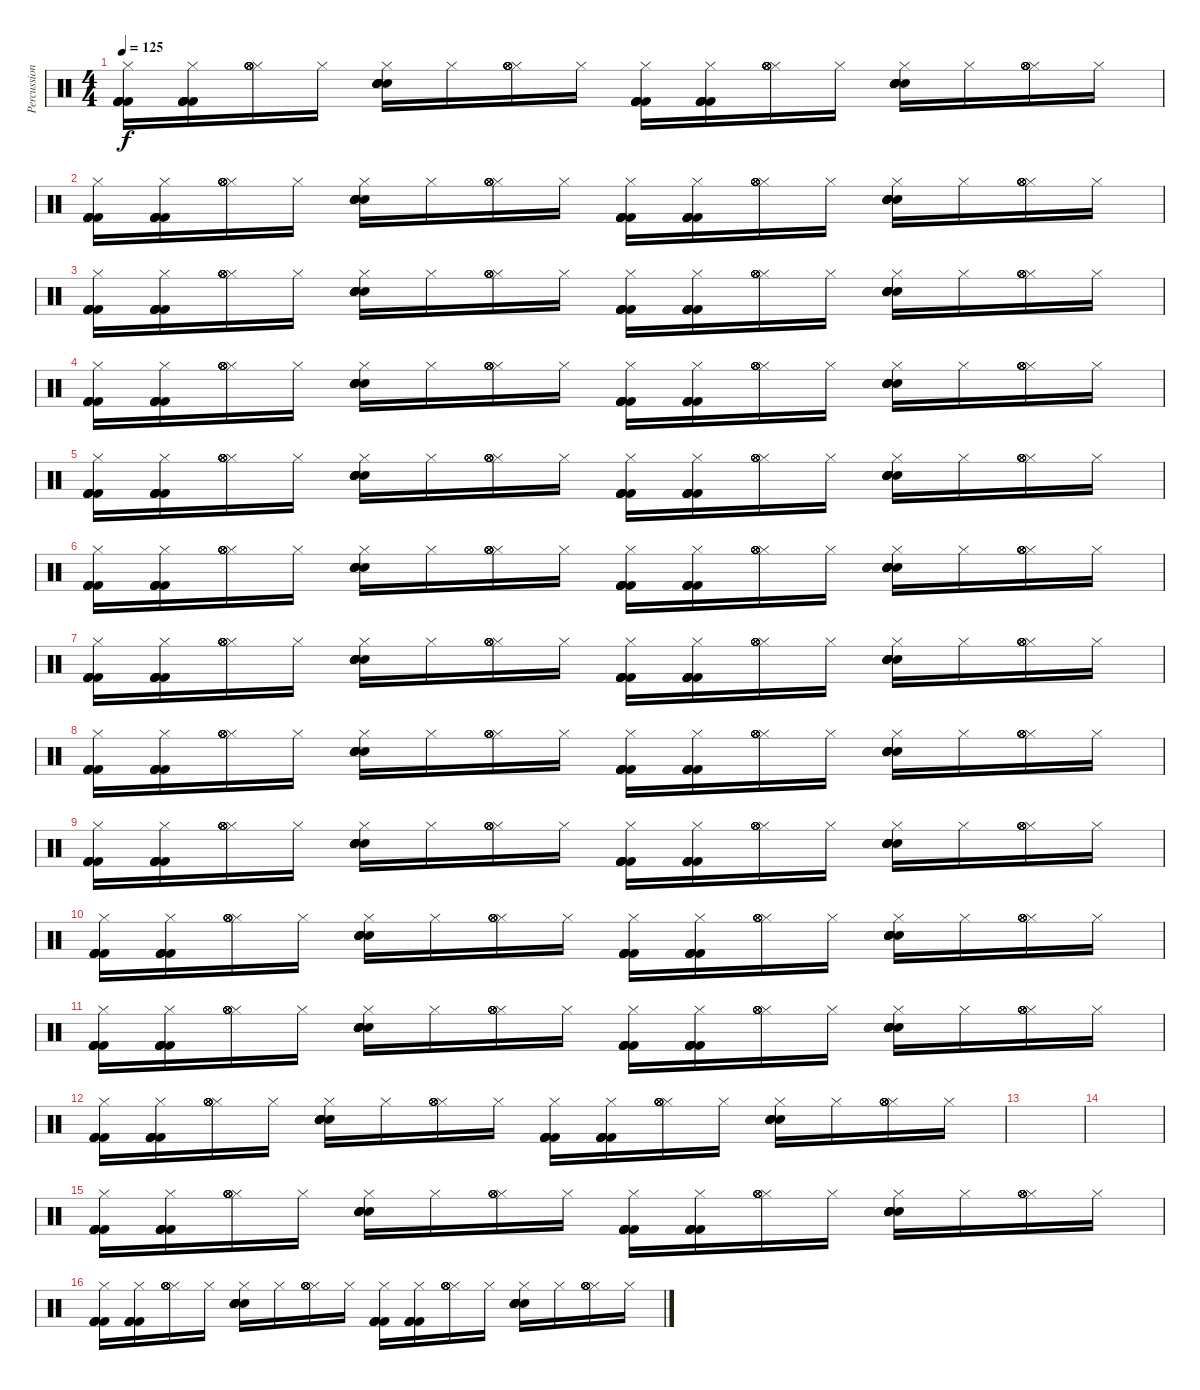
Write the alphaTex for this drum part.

\track ("Percussion" "Percussion") {instrument percussion}
\staff {score}
\articulation defaults
\ts (4 4)
\tempo 125
\clef neutral
\ks c
("Hi-Hat (closed)" "Kick (hit) 2" "Kick (hit) 2" "Kick (hit) 2" "Kick (hit) 2" "Kick (hit) 2").16{dy f} ("Hi-Hat (closed)" "Kick (hit) 2" "Kick (hit) 2" "Kick (hit) 2" "Kick (hit) 2" "Kick (hit) 2").16 ("Hi-Hat (closed)" "Hi-Hat (open)" "Hi-Hat (open)" "Hi-Hat (open)" "Hi-Hat (open)" "Hi-Hat (open)").16 "Hi-Hat (closed)".16 ("Hi-Hat (closed)" "Electric Snare (hit)" "Electric Snare (hit)" "Electric Snare (hit)" "Electric Snare (hit)" "Electric Snare (hit)").16 "Hi-Hat (closed)".16 ("Hi-Hat (closed)" "Hi-Hat (open)" "Hi-Hat (open)" "Hi-Hat (open)" "Hi-Hat (open)" "Hi-Hat (open)").16 "Hi-Hat (closed)".16 ("Hi-Hat (closed)" "Kick (hit) 2" "Kick (hit) 2" "Kick (hit) 2" "Kick (hit) 2" "Kick (hit) 2").16 ("Hi-Hat (closed)" "Kick (hit) 2" "Kick (hit) 2" "Kick (hit) 2" "Kick (hit) 2" "Kick (hit) 2").16 ("Hi-Hat (closed)" "Hi-Hat (open)" "Hi-Hat (open)" "Hi-Hat (open)" "Hi-Hat (open)" "Hi-Hat (open)").16 "Hi-Hat (closed)".16 ("Hi-Hat (closed)" "Electric Snare (hit)" "Electric Snare (hit)" "Electric Snare (hit)" "Electric Snare (hit)" "Electric Snare (hit)").16 "Hi-Hat (closed)".16 ("Hi-Hat (closed)" "Hi-Hat (open)" "Hi-Hat (open)" "Hi-Hat (open)" "Hi-Hat (open)" "Hi-Hat (open)").16 "Hi-Hat (closed)".16 |
("Hi-Hat (closed)" "Kick (hit) 2" "Kick (hit) 2" "Kick (hit) 2" "Kick (hit) 2" "Kick (hit) 2").16 ("Hi-Hat (closed)" "Kick (hit) 2" "Kick (hit) 2" "Kick (hit) 2" "Kick (hit) 2" "Kick (hit) 2").16 ("Hi-Hat (closed)" "Hi-Hat (open)" "Hi-Hat (open)" "Hi-Hat (open)" "Hi-Hat (open)" "Hi-Hat (open)").16 "Hi-Hat (closed)".16 ("Hi-Hat (closed)" "Electric Snare (hit)" "Electric Snare (hit)" "Electric Snare (hit)" "Electric Snare (hit)" "Electric Snare (hit)").16 "Hi-Hat (closed)".16 ("Hi-Hat (closed)" "Hi-Hat (open)" "Hi-Hat (open)" "Hi-Hat (open)" "Hi-Hat (open)" "Hi-Hat (open)").16 "Hi-Hat (closed)".16 ("Hi-Hat (closed)" "Kick (hit) 2" "Kick (hit) 2" "Kick (hit) 2" "Kick (hit) 2" "Kick (hit) 2").16 ("Hi-Hat (closed)" "Kick (hit) 2" "Kick (hit) 2" "Kick (hit) 2" "Kick (hit) 2" "Kick (hit) 2").16 ("Hi-Hat (closed)" "Hi-Hat (open)" "Hi-Hat (open)" "Hi-Hat (open)" "Hi-Hat (open)" "Hi-Hat (open)").16 "Hi-Hat (closed)".16 ("Hi-Hat (closed)" "Electric Snare (hit)" "Electric Snare (hit)" "Electric Snare (hit)" "Electric Snare (hit)" "Electric Snare (hit)").16 "Hi-Hat (closed)".16 ("Hi-Hat (closed)" "Hi-Hat (open)" "Hi-Hat (open)" "Hi-Hat (open)" "Hi-Hat (open)" "Hi-Hat (open)").16 "Hi-Hat (closed)".16 |
("Hi-Hat (closed)" "Kick (hit) 2" "Kick (hit) 2" "Kick (hit) 2" "Kick (hit) 2" "Kick (hit) 2").16 ("Hi-Hat (closed)" "Kick (hit) 2" "Kick (hit) 2" "Kick (hit) 2" "Kick (hit) 2" "Kick (hit) 2").16 ("Hi-Hat (closed)" "Hi-Hat (open)" "Hi-Hat (open)" "Hi-Hat (open)" "Hi-Hat (open)" "Hi-Hat (open)").16 "Hi-Hat (closed)".16 ("Hi-Hat (closed)" "Electric Snare (hit)" "Electric Snare (hit)" "Electric Snare (hit)" "Electric Snare (hit)" "Electric Snare (hit)").16 "Hi-Hat (closed)".16 ("Hi-Hat (closed)" "Hi-Hat (open)" "Hi-Hat (open)" "Hi-Hat (open)" "Hi-Hat (open)" "Hi-Hat (open)").16 "Hi-Hat (closed)".16 ("Hi-Hat (closed)" "Kick (hit) 2" "Kick (hit) 2" "Kick (hit) 2" "Kick (hit) 2" "Kick (hit) 2").16 ("Hi-Hat (closed)" "Kick (hit) 2" "Kick (hit) 2" "Kick (hit) 2" "Kick (hit) 2" "Kick (hit) 2").16 ("Hi-Hat (closed)" "Hi-Hat (open)" "Hi-Hat (open)" "Hi-Hat (open)" "Hi-Hat (open)" "Hi-Hat (open)").16 "Hi-Hat (closed)".16 ("Hi-Hat (closed)" "Electric Snare (hit)" "Electric Snare (hit)" "Electric Snare (hit)" "Electric Snare (hit)" "Electric Snare (hit)").16 "Hi-Hat (closed)".16 ("Hi-Hat (closed)" "Hi-Hat (open)" "Hi-Hat (open)" "Hi-Hat (open)" "Hi-Hat (open)" "Hi-Hat (open)").16 "Hi-Hat (closed)".16 |
("Hi-Hat (closed)" "Kick (hit) 2" "Kick (hit) 2" "Kick (hit) 2" "Kick (hit) 2" "Kick (hit) 2").16 ("Hi-Hat (closed)" "Kick (hit) 2" "Kick (hit) 2" "Kick (hit) 2" "Kick (hit) 2" "Kick (hit) 2").16 ("Hi-Hat (closed)" "Hi-Hat (open)" "Hi-Hat (open)" "Hi-Hat (open)" "Hi-Hat (open)" "Hi-Hat (open)").16 "Hi-Hat (closed)".16 ("Hi-Hat (closed)" "Electric Snare (hit)" "Electric Snare (hit)" "Electric Snare (hit)" "Electric Snare (hit)" "Electric Snare (hit)").16 "Hi-Hat (closed)".16 ("Hi-Hat (closed)" "Hi-Hat (open)" "Hi-Hat (open)" "Hi-Hat (open)" "Hi-Hat (open)" "Hi-Hat (open)").16 "Hi-Hat (closed)".16 ("Hi-Hat (closed)" "Kick (hit) 2" "Kick (hit) 2" "Kick (hit) 2" "Kick (hit) 2" "Kick (hit) 2").16 ("Hi-Hat (closed)" "Kick (hit) 2" "Kick (hit) 2" "Kick (hit) 2" "Kick (hit) 2" "Kick (hit) 2").16 ("Hi-Hat (closed)" "Hi-Hat (open)" "Hi-Hat (open)" "Hi-Hat (open)" "Hi-Hat (open)" "Hi-Hat (open)").16 "Hi-Hat (closed)".16 ("Hi-Hat (closed)" "Electric Snare (hit)" "Electric Snare (hit)" "Electric Snare (hit)" "Electric Snare (hit)" "Electric Snare (hit)").16 "Hi-Hat (closed)".16 ("Hi-Hat (closed)" "Hi-Hat (open)" "Hi-Hat (open)" "Hi-Hat (open)" "Hi-Hat (open)" "Hi-Hat (open)").16 "Hi-Hat (closed)".16 |
("Hi-Hat (closed)" "Kick (hit) 2" "Kick (hit) 2" "Kick (hit) 2" "Kick (hit) 2" "Kick (hit) 2").16 ("Hi-Hat (closed)" "Kick (hit) 2" "Kick (hit) 2" "Kick (hit) 2" "Kick (hit) 2" "Kick (hit) 2").16 ("Hi-Hat (closed)" "Hi-Hat (open)" "Hi-Hat (open)" "Hi-Hat (open)" "Hi-Hat (open)" "Hi-Hat (open)").16 "Hi-Hat (closed)".16 ("Hi-Hat (closed)" "Electric Snare (hit)" "Electric Snare (hit)" "Electric Snare (hit)" "Electric Snare (hit)" "Electric Snare (hit)").16 "Hi-Hat (closed)".16 ("Hi-Hat (closed)" "Hi-Hat (open)" "Hi-Hat (open)" "Hi-Hat (open)" "Hi-Hat (open)" "Hi-Hat (open)").16 "Hi-Hat (closed)".16 ("Hi-Hat (closed)" "Kick (hit) 2" "Kick (hit) 2" "Kick (hit) 2" "Kick (hit) 2" "Kick (hit) 2").16 ("Hi-Hat (closed)" "Kick (hit) 2" "Kick (hit) 2" "Kick (hit) 2" "Kick (hit) 2" "Kick (hit) 2").16 ("Hi-Hat (closed)" "Hi-Hat (open)" "Hi-Hat (open)" "Hi-Hat (open)" "Hi-Hat (open)" "Hi-Hat (open)").16 "Hi-Hat (closed)".16 ("Hi-Hat (closed)" "Electric Snare (hit)" "Electric Snare (hit)" "Electric Snare (hit)" "Electric Snare (hit)" "Electric Snare (hit)").16 "Hi-Hat (closed)".16 ("Hi-Hat (closed)" "Hi-Hat (open)" "Hi-Hat (open)" "Hi-Hat (open)" "Hi-Hat (open)" "Hi-Hat (open)").16 "Hi-Hat (closed)".16 |
("Hi-Hat (closed)" "Kick (hit) 2" "Kick (hit) 2" "Kick (hit) 2" "Kick (hit) 2" "Kick (hit) 2").16 ("Hi-Hat (closed)" "Kick (hit) 2" "Kick (hit) 2" "Kick (hit) 2" "Kick (hit) 2" "Kick (hit) 2").16 ("Hi-Hat (closed)" "Hi-Hat (open)" "Hi-Hat (open)" "Hi-Hat (open)" "Hi-Hat (open)" "Hi-Hat (open)").16 "Hi-Hat (closed)".16 ("Hi-Hat (closed)" "Electric Snare (hit)" "Electric Snare (hit)" "Electric Snare (hit)" "Electric Snare (hit)" "Electric Snare (hit)").16 "Hi-Hat (closed)".16 ("Hi-Hat (closed)" "Hi-Hat (open)" "Hi-Hat (open)" "Hi-Hat (open)" "Hi-Hat (open)" "Hi-Hat (open)").16 "Hi-Hat (closed)".16 ("Hi-Hat (closed)" "Kick (hit) 2" "Kick (hit) 2" "Kick (hit) 2" "Kick (hit) 2" "Kick (hit) 2").16 ("Hi-Hat (closed)" "Kick (hit) 2" "Kick (hit) 2" "Kick (hit) 2" "Kick (hit) 2" "Kick (hit) 2").16 ("Hi-Hat (closed)" "Hi-Hat (open)" "Hi-Hat (open)" "Hi-Hat (open)" "Hi-Hat (open)" "Hi-Hat (open)").16 "Hi-Hat (closed)".16 ("Hi-Hat (closed)" "Electric Snare (hit)" "Electric Snare (hit)" "Electric Snare (hit)" "Electric Snare (hit)" "Electric Snare (hit)").16 "Hi-Hat (closed)".16 ("Hi-Hat (closed)" "Hi-Hat (open)" "Hi-Hat (open)" "Hi-Hat (open)" "Hi-Hat (open)" "Hi-Hat (open)").16 "Hi-Hat (closed)".16 |
("Hi-Hat (closed)" "Kick (hit) 2" "Kick (hit) 2" "Kick (hit) 2" "Kick (hit) 2" "Kick (hit) 2").16 ("Hi-Hat (closed)" "Kick (hit) 2" "Kick (hit) 2" "Kick (hit) 2" "Kick (hit) 2" "Kick (hit) 2").16 ("Hi-Hat (closed)" "Hi-Hat (open)" "Hi-Hat (open)" "Hi-Hat (open)" "Hi-Hat (open)" "Hi-Hat (open)").16 "Hi-Hat (closed)".16 ("Hi-Hat (closed)" "Electric Snare (hit)" "Electric Snare (hit)" "Electric Snare (hit)" "Electric Snare (hit)" "Electric Snare (hit)").16 "Hi-Hat (closed)".16 ("Hi-Hat (closed)" "Hi-Hat (open)" "Hi-Hat (open)" "Hi-Hat (open)" "Hi-Hat (open)" "Hi-Hat (open)").16 "Hi-Hat (closed)".16 ("Hi-Hat (closed)" "Kick (hit) 2" "Kick (hit) 2" "Kick (hit) 2" "Kick (hit) 2" "Kick (hit) 2").16 ("Hi-Hat (closed)" "Kick (hit) 2" "Kick (hit) 2" "Kick (hit) 2" "Kick (hit) 2" "Kick (hit) 2").16 ("Hi-Hat (closed)" "Hi-Hat (open)" "Hi-Hat (open)" "Hi-Hat (open)" "Hi-Hat (open)" "Hi-Hat (open)").16 "Hi-Hat (closed)".16 ("Hi-Hat (closed)" "Electric Snare (hit)" "Electric Snare (hit)" "Electric Snare (hit)" "Electric Snare (hit)" "Electric Snare (hit)").16 "Hi-Hat (closed)".16 ("Hi-Hat (closed)" "Hi-Hat (open)" "Hi-Hat (open)" "Hi-Hat (open)" "Hi-Hat (open)" "Hi-Hat (open)").16 "Hi-Hat (closed)".16 |
("Hi-Hat (closed)" "Kick (hit) 2" "Kick (hit) 2" "Kick (hit) 2" "Kick (hit) 2" "Kick (hit) 2").16 ("Hi-Hat (closed)" "Kick (hit) 2" "Kick (hit) 2" "Kick (hit) 2" "Kick (hit) 2" "Kick (hit) 2").16 ("Hi-Hat (closed)" "Hi-Hat (open)" "Hi-Hat (open)" "Hi-Hat (open)" "Hi-Hat (open)" "Hi-Hat (open)").16 "Hi-Hat (closed)".16 ("Hi-Hat (closed)" "Electric Snare (hit)" "Electric Snare (hit)" "Electric Snare (hit)" "Electric Snare (hit)" "Electric Snare (hit)").16 "Hi-Hat (closed)".16 ("Hi-Hat (closed)" "Hi-Hat (open)" "Hi-Hat (open)" "Hi-Hat (open)" "Hi-Hat (open)" "Hi-Hat (open)").16 "Hi-Hat (closed)".16 ("Hi-Hat (closed)" "Kick (hit) 2" "Kick (hit) 2" "Kick (hit) 2" "Kick (hit) 2" "Kick (hit) 2").16 ("Hi-Hat (closed)" "Kick (hit) 2" "Kick (hit) 2" "Kick (hit) 2" "Kick (hit) 2" "Kick (hit) 2").16 ("Hi-Hat (closed)" "Hi-Hat (open)" "Hi-Hat (open)" "Hi-Hat (open)" "Hi-Hat (open)" "Hi-Hat (open)").16 "Hi-Hat (closed)".16 ("Hi-Hat (closed)" "Electric Snare (hit)" "Electric Snare (hit)" "Electric Snare (hit)" "Electric Snare (hit)" "Electric Snare (hit)").16 "Hi-Hat (closed)".16 ("Hi-Hat (closed)" "Hi-Hat (open)" "Hi-Hat (open)" "Hi-Hat (open)" "Hi-Hat (open)" "Hi-Hat (open)").16 "Hi-Hat (closed)".16 |
("Hi-Hat (closed)" "Kick (hit) 2" "Kick (hit) 2" "Kick (hit) 2" "Kick (hit) 2" "Kick (hit) 2").16 ("Hi-Hat (closed)" "Kick (hit) 2" "Kick (hit) 2" "Kick (hit) 2" "Kick (hit) 2" "Kick (hit) 2").16 ("Hi-Hat (closed)" "Hi-Hat (open)" "Hi-Hat (open)" "Hi-Hat (open)" "Hi-Hat (open)" "Hi-Hat (open)").16 "Hi-Hat (closed)".16 ("Hi-Hat (closed)" "Electric Snare (hit)" "Electric Snare (hit)" "Electric Snare (hit)" "Electric Snare (hit)" "Electric Snare (hit)").16 "Hi-Hat (closed)".16 ("Hi-Hat (closed)" "Hi-Hat (open)" "Hi-Hat (open)" "Hi-Hat (open)" "Hi-Hat (open)" "Hi-Hat (open)").16 "Hi-Hat (closed)".16 ("Hi-Hat (closed)" "Kick (hit) 2" "Kick (hit) 2" "Kick (hit) 2" "Kick (hit) 2" "Kick (hit) 2").16 ("Hi-Hat (closed)" "Kick (hit) 2" "Kick (hit) 2" "Kick (hit) 2" "Kick (hit) 2" "Kick (hit) 2").16 ("Hi-Hat (closed)" "Hi-Hat (open)" "Hi-Hat (open)" "Hi-Hat (open)" "Hi-Hat (open)" "Hi-Hat (open)").16 "Hi-Hat (closed)".16 ("Hi-Hat (closed)" "Electric Snare (hit)" "Electric Snare (hit)" "Electric Snare (hit)" "Electric Snare (hit)" "Electric Snare (hit)").16 "Hi-Hat (closed)".16 ("Hi-Hat (closed)" "Hi-Hat (open)" "Hi-Hat (open)" "Hi-Hat (open)" "Hi-Hat (open)" "Hi-Hat (open)").16 "Hi-Hat (closed)".16 |
("Hi-Hat (closed)" "Kick (hit) 2" "Kick (hit) 2" "Kick (hit) 2" "Kick (hit) 2" "Kick (hit) 2").16 ("Hi-Hat (closed)" "Kick (hit) 2" "Kick (hit) 2" "Kick (hit) 2" "Kick (hit) 2" "Kick (hit) 2").16 ("Hi-Hat (closed)" "Hi-Hat (open)" "Hi-Hat (open)" "Hi-Hat (open)" "Hi-Hat (open)" "Hi-Hat (open)").16 "Hi-Hat (closed)".16 ("Hi-Hat (closed)" "Electric Snare (hit)" "Electric Snare (hit)" "Electric Snare (hit)" "Electric Snare (hit)" "Electric Snare (hit)").16 "Hi-Hat (closed)".16 ("Hi-Hat (closed)" "Hi-Hat (open)" "Hi-Hat (open)" "Hi-Hat (open)" "Hi-Hat (open)" "Hi-Hat (open)").16 "Hi-Hat (closed)".16 ("Hi-Hat (closed)" "Kick (hit) 2" "Kick (hit) 2" "Kick (hit) 2" "Kick (hit) 2" "Kick (hit) 2").16 ("Hi-Hat (closed)" "Kick (hit) 2" "Kick (hit) 2" "Kick (hit) 2" "Kick (hit) 2" "Kick (hit) 2").16 ("Hi-Hat (closed)" "Hi-Hat (open)" "Hi-Hat (open)" "Hi-Hat (open)" "Hi-Hat (open)" "Hi-Hat (open)").16 "Hi-Hat (closed)".16 ("Hi-Hat (closed)" "Electric Snare (hit)" "Electric Snare (hit)" "Electric Snare (hit)" "Electric Snare (hit)" "Electric Snare (hit)").16 "Hi-Hat (closed)".16 ("Hi-Hat (closed)" "Hi-Hat (open)" "Hi-Hat (open)" "Hi-Hat (open)" "Hi-Hat (open)" "Hi-Hat (open)").16 "Hi-Hat (closed)".16 |
("Hi-Hat (closed)" "Kick (hit) 2" "Kick (hit) 2" "Kick (hit) 2" "Kick (hit) 2" "Kick (hit) 2").16 ("Hi-Hat (closed)" "Kick (hit) 2" "Kick (hit) 2" "Kick (hit) 2" "Kick (hit) 2" "Kick (hit) 2").16 ("Hi-Hat (closed)" "Hi-Hat (open)" "Hi-Hat (open)" "Hi-Hat (open)" "Hi-Hat (open)" "Hi-Hat (open)").16 "Hi-Hat (closed)".16 ("Hi-Hat (closed)" "Electric Snare (hit)" "Electric Snare (hit)" "Electric Snare (hit)" "Electric Snare (hit)" "Electric Snare (hit)").16 "Hi-Hat (closed)".16 ("Hi-Hat (closed)" "Hi-Hat (open)" "Hi-Hat (open)" "Hi-Hat (open)" "Hi-Hat (open)" "Hi-Hat (open)").16 "Hi-Hat (closed)".16 ("Hi-Hat (closed)" "Kick (hit) 2" "Kick (hit) 2" "Kick (hit) 2" "Kick (hit) 2" "Kick (hit) 2").16 ("Hi-Hat (closed)" "Kick (hit) 2" "Kick (hit) 2" "Kick (hit) 2" "Kick (hit) 2" "Kick (hit) 2").16 ("Hi-Hat (closed)" "Hi-Hat (open)" "Hi-Hat (open)" "Hi-Hat (open)" "Hi-Hat (open)" "Hi-Hat (open)").16 "Hi-Hat (closed)".16 ("Hi-Hat (closed)" "Electric Snare (hit)" "Electric Snare (hit)" "Electric Snare (hit)" "Electric Snare (hit)" "Electric Snare (hit)").16 "Hi-Hat (closed)".16 ("Hi-Hat (closed)" "Hi-Hat (open)" "Hi-Hat (open)" "Hi-Hat (open)" "Hi-Hat (open)" "Hi-Hat (open)").16 "Hi-Hat (closed)".16 |
("Hi-Hat (closed)" "Kick (hit) 2" "Kick (hit) 2" "Kick (hit) 2" "Kick (hit) 2" "Kick (hit) 2").16 ("Hi-Hat (closed)" "Kick (hit) 2" "Kick (hit) 2" "Kick (hit) 2" "Kick (hit) 2" "Kick (hit) 2").16 ("Hi-Hat (closed)" "Hi-Hat (open)" "Hi-Hat (open)" "Hi-Hat (open)" "Hi-Hat (open)" "Hi-Hat (open)").16 "Hi-Hat (closed)".16 ("Hi-Hat (closed)" "Electric Snare (hit)" "Electric Snare (hit)" "Electric Snare (hit)" "Electric Snare (hit)" "Electric Snare (hit)").16 "Hi-Hat (closed)".16 ("Hi-Hat (closed)" "Hi-Hat (open)" "Hi-Hat (open)" "Hi-Hat (open)" "Hi-Hat (open)" "Hi-Hat (open)").16 "Hi-Hat (closed)".16 ("Hi-Hat (closed)" "Kick (hit) 2" "Kick (hit) 2" "Kick (hit) 2" "Kick (hit) 2" "Kick (hit) 2").16 ("Hi-Hat (closed)" "Kick (hit) 2" "Kick (hit) 2" "Kick (hit) 2" "Kick (hit) 2" "Kick (hit) 2").16 ("Hi-Hat (closed)" "Hi-Hat (open)" "Hi-Hat (open)" "Hi-Hat (open)" "Hi-Hat (open)" "Hi-Hat (open)").16 "Hi-Hat (closed)".16 ("Hi-Hat (closed)" "Electric Snare (hit)" "Electric Snare (hit)" "Electric Snare (hit)" "Electric Snare (hit)" "Electric Snare (hit)").16 "Hi-Hat (closed)".16 ("Hi-Hat (closed)" "Hi-Hat (open)" "Hi-Hat (open)" "Hi-Hat (open)" "Hi-Hat (open)" "Hi-Hat (open)").16 "Hi-Hat (closed)".16 |
|
|
("Hi-Hat (closed)" "Kick (hit) 2" "Kick (hit) 2" "Kick (hit) 2" "Kick (hit) 2" "Kick (hit) 2").16 ("Hi-Hat (closed)" "Kick (hit) 2" "Kick (hit) 2" "Kick (hit) 2" "Kick (hit) 2" "Kick (hit) 2").16 ("Hi-Hat (closed)" "Hi-Hat (open)" "Hi-Hat (open)" "Hi-Hat (open)" "Hi-Hat (open)" "Hi-Hat (open)").16 "Hi-Hat (closed)".16 ("Hi-Hat (closed)" "Electric Snare (hit)" "Electric Snare (hit)" "Electric Snare (hit)" "Electric Snare (hit)" "Electric Snare (hit)").16 "Hi-Hat (closed)".16 ("Hi-Hat (closed)" "Hi-Hat (open)" "Hi-Hat (open)" "Hi-Hat (open)" "Hi-Hat (open)" "Hi-Hat (open)").16 "Hi-Hat (closed)".16 ("Hi-Hat (closed)" "Kick (hit) 2" "Kick (hit) 2" "Kick (hit) 2" "Kick (hit) 2" "Kick (hit) 2").16 ("Hi-Hat (closed)" "Kick (hit) 2" "Kick (hit) 2" "Kick (hit) 2" "Kick (hit) 2" "Kick (hit) 2").16 ("Hi-Hat (closed)" "Hi-Hat (open)" "Hi-Hat (open)" "Hi-Hat (open)" "Hi-Hat (open)" "Hi-Hat (open)").16 "Hi-Hat (closed)".16 ("Hi-Hat (closed)" "Electric Snare (hit)" "Electric Snare (hit)" "Electric Snare (hit)" "Electric Snare (hit)" "Electric Snare (hit)").16 "Hi-Hat (closed)".16 ("Hi-Hat (closed)" "Hi-Hat (open)" "Hi-Hat (open)" "Hi-Hat (open)" "Hi-Hat (open)" "Hi-Hat (open)").16 "Hi-Hat (closed)".16 |
("Hi-Hat (closed)" "Kick (hit) 2" "Kick (hit) 2" "Kick (hit) 2" "Kick (hit) 2" "Kick (hit) 2").16 ("Hi-Hat (closed)" "Kick (hit) 2" "Kick (hit) 2" "Kick (hit) 2" "Kick (hit) 2" "Kick (hit) 2").16 ("Hi-Hat (closed)" "Hi-Hat (open)" "Hi-Hat (open)" "Hi-Hat (open)" "Hi-Hat (open)" "Hi-Hat (open)").16 "Hi-Hat (closed)".16 ("Hi-Hat (closed)" "Electric Snare (hit)" "Electric Snare (hit)" "Electric Snare (hit)" "Electric Snare (hit)" "Electric Snare (hit)").16 "Hi-Hat (closed)".16 ("Hi-Hat (closed)" "Hi-Hat (open)" "Hi-Hat (open)" "Hi-Hat (open)" "Hi-Hat (open)" "Hi-Hat (open)").16 "Hi-Hat (closed)".16 ("Hi-Hat (closed)" "Kick (hit) 2" "Kick (hit) 2" "Kick (hit) 2" "Kick (hit) 2" "Kick (hit) 2").16 ("Hi-Hat (closed)" "Kick (hit) 2" "Kick (hit) 2" "Kick (hit) 2" "Kick (hit) 2" "Kick (hit) 2").16 ("Hi-Hat (closed)" "Hi-Hat (open)" "Hi-Hat (open)" "Hi-Hat (open)" "Hi-Hat (open)" "Hi-Hat (open)").16 "Hi-Hat (closed)".16 ("Hi-Hat (closed)" "Electric Snare (hit)" "Electric Snare (hit)" "Electric Snare (hit)" "Electric Snare (hit)" "Electric Snare (hit)").16 "Hi-Hat (closed)".16 ("Hi-Hat (closed)" "Hi-Hat (open)" "Hi-Hat (open)" "Hi-Hat (open)" "Hi-Hat (open)" "Hi-Hat (open)").16 "Hi-Hat (closed)".16
